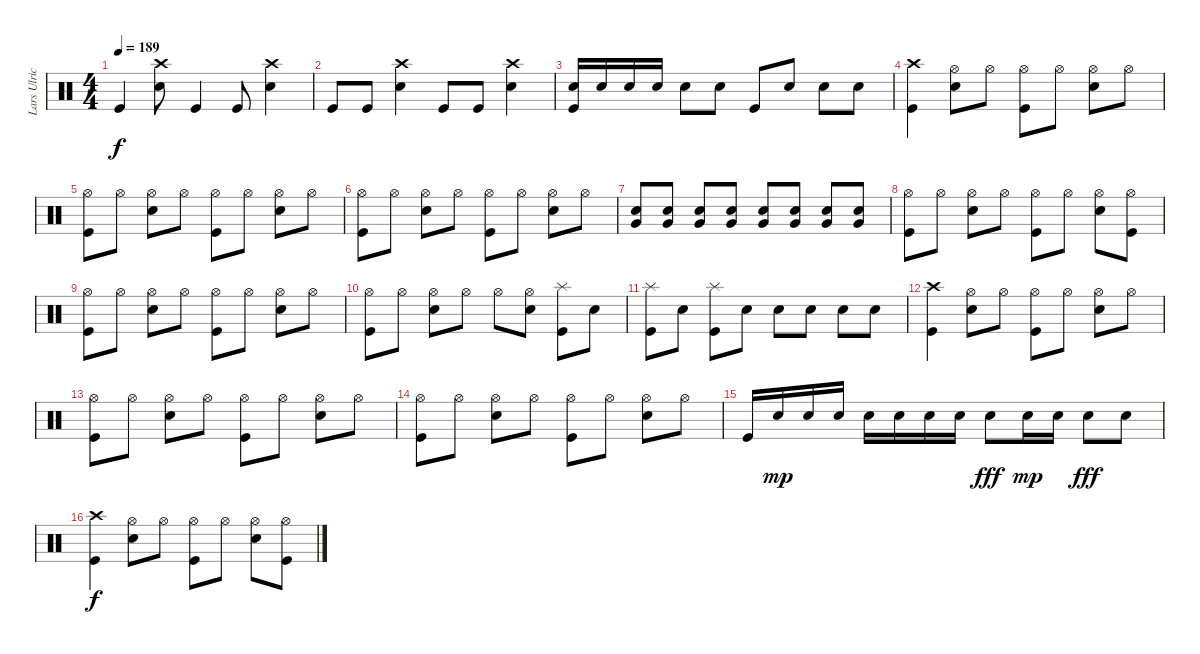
\track ("Lars Ulrich" "Lars Ulric") {instrument percussion}
\staff {score}
\articulation defaults
\ts (4 4)
\tempo 189
\clef neutral
\ks c "Kick (hit)".4{dy f}
("Crash high (hit)" "Electric Snare (hit)").8 "Kick (hit)".4 "Kick (hit)".8 ("Crash high (hit)" "Electric Snare (hit)").4 |
"Kick (hit)".8 "Kick (hit)".8 ("Crash high (hit)" "Electric Snare (hit)").4 "Kick (hit)".8 "Kick (hit)".8 ("Crash high (hit)" "Electric Snare (hit)").4 |
("Electric Snare (hit)" "Kick (hit)").16 "Electric Snare (hit)".16 "Electric Snare (hit)".16 "Electric Snare (hit)".16 "Electric Snare (hit)".8 "Electric Snare (hit)".8 "Kick (hit)".8 "Electric Snare (hit)".8 "Electric Snare (hit)".8 "Electric Snare (hit)".8 |
("Crash high (hit)" "Kick (hit)").4 ("Hi-Hat (open)" "Electric Snare (hit)").8 "Hi-Hat (open)".8 ("Hi-Hat (open)" "Kick (hit)").8 "Hi-Hat (open)".8 ("Hi-Hat (open)" "Electric Snare (hit)").8 "Hi-Hat (open)".8 |
("Hi-Hat (open)" "Kick (hit)").8 "Hi-Hat (open)".8 ("Hi-Hat (open)" "Electric Snare (hit)").8 "Hi-Hat (open)".8 ("Hi-Hat (open)" "Kick (hit)").8 "Hi-Hat (open)".8 ("Hi-Hat (open)" "Electric Snare (hit)").8 "Hi-Hat (open)".8 |
("Hi-Hat (open)" "Kick (hit)").8 "Hi-Hat (open)".8 ("Hi-Hat (open)" "Electric Snare (hit)").8 "Hi-Hat (open)".8 ("Hi-Hat (open)" "Kick (hit)").8 "Hi-Hat (open)".8 ("Hi-Hat (open)" "Electric Snare (hit)").8 "Hi-Hat (open)".8 |
("Electric Snare (hit)" "Very Low Tom (hit)").8 ("Electric Snare (hit)" "Very Low Tom (hit)").8 ("Electric Snare (hit)" "Very Low Tom (hit)").8 ("Electric Snare (hit)" "Very Low Tom (hit)").8 ("Electric Snare (hit)" "Very Low Tom (hit)").8 ("Electric Snare (hit)" "Very Low Tom (hit)").8 ("Electric Snare (hit)" "Very Low Tom (hit)").8 ("Electric Snare (hit)" "Very Low Tom (hit)").8 |
("Hi-Hat (open)" "Kick (hit)").8 "Hi-Hat (open)".8 ("Hi-Hat (open)" "Electric Snare (hit)").8 "Hi-Hat (open)".8 ("Hi-Hat (open)" "Kick (hit)").8 "Hi-Hat (open)".8 ("Hi-Hat (open)" "Electric Snare (hit)").8 ("Hi-Hat (open)" "Kick (hit)").8 |
("Hi-Hat (open)" "Kick (hit)").8 "Hi-Hat (open)".8 ("Hi-Hat (open)" "Electric Snare (hit)").8 "Hi-Hat (open)".8 ("Hi-Hat (open)" "Kick (hit)").8 "Hi-Hat (open)".8 ("Hi-Hat (open)" "Electric Snare (hit)").8 "Hi-Hat (open)".8 |
("Hi-Hat (open)" "Kick (hit)").8 "Hi-Hat (open)".8 ("Hi-Hat (open)" "Electric Snare (hit)").8 "Hi-Hat (open)".8 "Hi-Hat (open)".8 ("Hi-Hat (open)" "Electric Snare (hit)").8 ("Splash (hit)" "Kick (hit)").8 "Electric Snare (hit)".8 |
("Splash (hit)" "Kick (hit)").8 "Electric Snare (hit)".8 ("Splash (hit)" "Kick (hit)").8 "Electric Snare (hit)".8 "Electric Snare (hit)".8 "Electric Snare (hit)".8 "Electric Snare (hit)".8 "Electric Snare (hit)".8 |
("Crash high (hit)" "Kick (hit)").4 ("Hi-Hat (open)" "Electric Snare (hit)").8 "Hi-Hat (open)".8 ("Hi-Hat (open)" "Kick (hit)").8 "Hi-Hat (open)".8 ("Hi-Hat (open)" "Electric Snare (hit)").8 "Hi-Hat (open)".8 |
("Hi-Hat (open)" "Kick (hit)").8 "Hi-Hat (open)".8 ("Hi-Hat (open)" "Electric Snare (hit)").8 "Hi-Hat (open)".8 ("Hi-Hat (open)" "Kick (hit)").8 "Hi-Hat (open)".8 ("Hi-Hat (open)" "Electric Snare (hit)").8 "Hi-Hat (open)".8 |
("Hi-Hat (open)" "Kick (hit)").8 "Hi-Hat (open)".8 ("Hi-Hat (open)" "Electric Snare (hit)").8 "Hi-Hat (open)".8 ("Hi-Hat (open)" "Kick (hit)").8 "Hi-Hat (open)".8 ("Hi-Hat (open)" "Electric Snare (hit)").8 "Hi-Hat (open)".8 |
"Kick (hit)".16 "Electric Snare (hit)".16{dy mp} "Electric Snare (hit)".16 "Electric Snare (hit)".16 "Electric Snare (hit)".16 "Electric Snare (hit)".16 "Electric Snare (hit)".16 "Electric Snare (hit)".16 "Electric Snare (hit)".8{dy fff} "Electric Snare (hit)".16{dy mp} "Electric Snare (hit)".16 "Electric Snare (hit)".8{dy fff} "Electric Snare (hit)".8 |
("Crash high (hit)" "Kick (hit)").4{dy f} ("Hi-Hat (open)" "Electric Snare (hit)").8 "Hi-Hat (open)".8 ("Hi-Hat (open)" "Kick (hit)").8 "Hi-Hat (open)".8 ("Hi-Hat (open)" "Electric Snare (hit)").8 ("Hi-Hat (open)" "Kick (hit)").8
